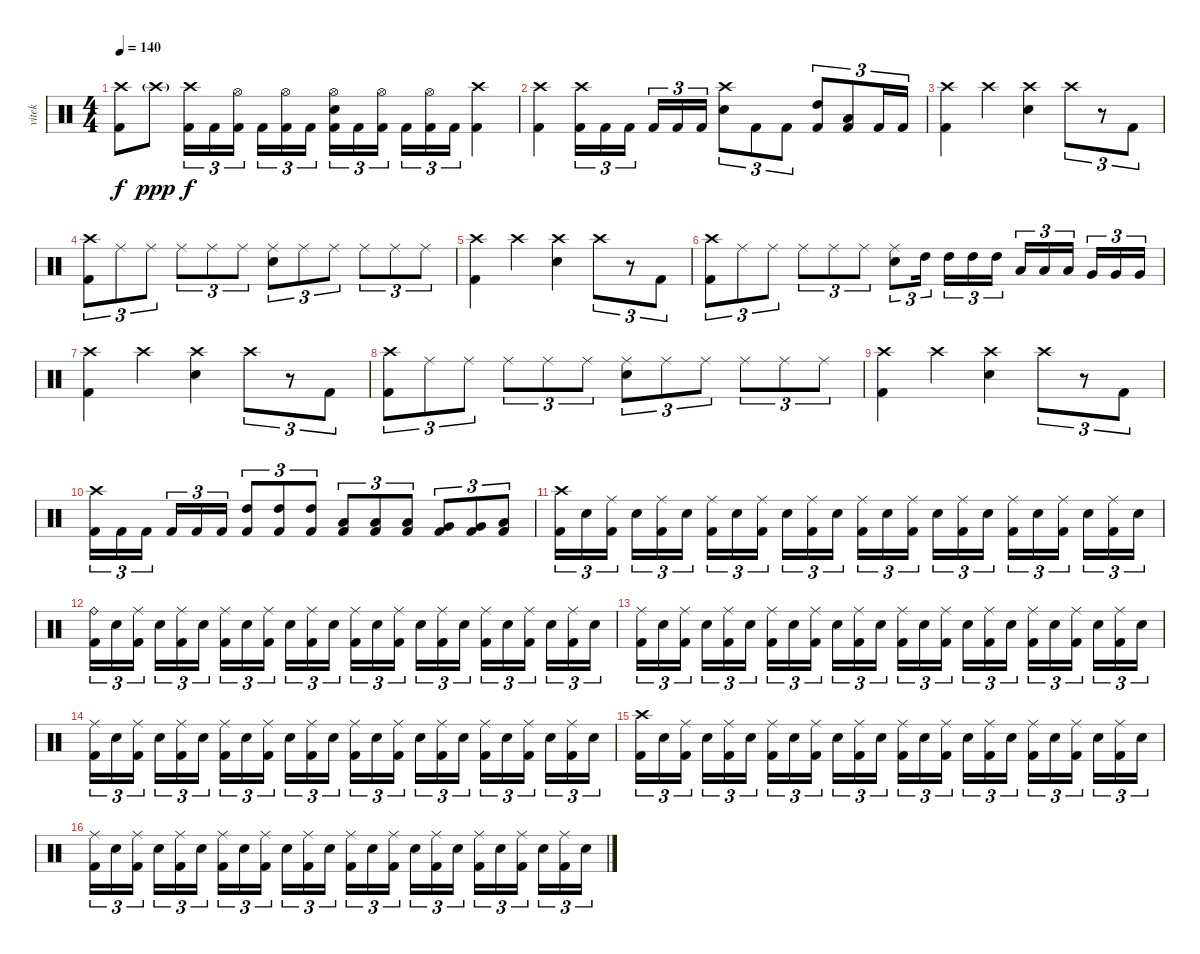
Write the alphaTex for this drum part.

\track ("vitek" "vitek") {instrument percussion}
\staff {score}
\articulation defaults
\ts (4 4)
\tempo 140
\clef neutral
\ks c
("Crash high (hit)"{pm} "Kick (hit) 2").8{dy f} "Crash high (hit)"{g}.8{dy ppp} ("Crash high (hit)" "Kick (hit) 2").16{tu (3 2) dy f} "Kick (hit) 2".16{tu (3 2)} ("Hi-Hat (open)" "Kick (hit) 2").16{tu (3 2)} "Kick (hit) 2".16{tu (3 2)} ("Hi-Hat (open)" "Kick (hit) 2").16{tu (3 2)} "Kick (hit) 2".16{tu (3 2)} ("Hi-Hat (open)" "Electric Snare (hit)" "Kick (hit) 2").16{tu (3 2)} "Kick (hit) 2".16{tu (3 2)} ("Hi-Hat (open)" "Kick (hit) 2").16{tu (3 2)} "Kick (hit) 2".16{tu (3 2)} ("Hi-Hat (open)" "Kick (hit) 2").16{tu (3 2)} "Kick (hit) 2".16{tu (3 2)} ("Crash high (hit)" "Kick (hit) 2").4 |
("Crash high (hit)" "Kick (hit) 2").4 ("Crash high (hit)" "Kick (hit) 2").16{tu (3 2)} "Kick (hit) 2".16{tu (3 2)} "Kick (hit) 2".16{tu (3 2)} "Kick (hit) 2".16{tu (3 2)} "Kick (hit) 2".16{tu (3 2)} "Kick (hit) 2".16{tu (3 2)} ("Crash high (hit)" "Electric Snare (hit)").8{tu (3 2)} "Kick (hit) 2".8{tu (3 2)} "Kick (hit) 2".8{tu (3 2)} ("High Tom (hit)" "Kick (hit) 2").8{tu (3 2)} ("Low Tom (hit)" "Kick (hit) 2").8{tu (3 2)} "Kick (hit) 2".16{tu (3 2)} "Kick (hit) 2".16{tu (3 2)} |
("Crash high (hit)" "Kick (hit) 2").4 "Crash high (hit)".4 ("Crash high (hit)" "Electric Snare (hit)").4 "Crash high (hit)".8{tu (3 2)} r.8{tu (3 2)} "Kick (hit) 2".8{tu (3 2)} |
("Crash high (hit)" "Kick (hit) 2").8{tu (3 2)} "Ride (middle)".8{tu (3 2)} "Ride (middle)".8{tu (3 2)} "Ride (middle)".8{tu (3 2)} "Ride (middle)".8{tu (3 2)} "Ride (middle)".8{tu (3 2)} ("Ride (middle)" "Electric Snare (hit)").8{tu (3 2)} "Ride (middle)".8{tu (3 2)} "Ride (middle)".8{tu (3 2)} "Ride (middle)".8{tu (3 2)} "Ride (middle)".8{tu (3 2)} "Ride (middle)".8{tu (3 2)} |
("Crash high (hit)" "Kick (hit) 2").4 "Crash high (hit)".4 ("Crash high (hit)" "Electric Snare (hit)").4 "Crash high (hit)".8{tu (3 2)} r.8{tu (3 2)} "Kick (hit) 2".8{tu (3 2)} |
("Crash high (hit)" "Kick (hit) 2").8{tu (3 2)} "Ride (middle)".8{tu (3 2)} "Ride (middle)".8{tu (3 2)} "Ride (middle)".8{tu (3 2)} "Ride (middle)".8{tu (3 2)} "Ride (middle)".8{tu (3 2)} ("Ride (middle)" "Electric Snare (hit)").8{tu (3 2)} "High Tom (hit)".16{tu (3 2)} "High Tom (hit)".16{tu (3 2)} "High Tom (hit)".16{tu (3 2)} "High Tom (hit)".16{tu (3 2)} "Low Tom (hit)".16{tu (3 2)} "Low Tom (hit)".16{tu (3 2)} "Low Tom (hit)".16{tu (3 2)} "Very Low Tom (hit)".16{tu (3 2)} "Very Low Tom (hit)".16{tu (3 2)} "Very Low Tom (hit)".16{tu (3 2)} |
("Crash high (hit)" "Kick (hit) 2").4 "Crash high (hit)".4 ("Crash high (hit)" "Electric Snare (hit)").4 "Crash high (hit)".8{tu (3 2)} r.8{tu (3 2)} "Kick (hit) 2".8{tu (3 2)} |
("Crash high (hit)" "Kick (hit) 2").8{tu (3 2)} "Ride (middle)".8{tu (3 2)} "Ride (middle)".8{tu (3 2)} "Ride (middle)".8{tu (3 2)} "Ride (middle)".8{tu (3 2)} "Ride (middle)".8{tu (3 2)} ("Ride (middle)" "Electric Snare (hit)").8{tu (3 2)} "Ride (middle)".8{tu (3 2)} "Ride (middle)".8{tu (3 2)} "Ride (middle)".8{tu (3 2)} "Ride (middle)".8{tu (3 2)} "Ride (middle)".8{tu (3 2)} |
("Crash high (hit)" "Kick (hit) 2").4 "Crash high (hit)".4 ("Crash high (hit)" "Electric Snare (hit)").4 "Crash high (hit)".8{tu (3 2)} r.8{tu (3 2)} "Kick (hit) 2".8{tu (3 2)} |
("Crash high (hit)" "Kick (hit) 2").16{tu (3 2)} "Kick (hit) 2".16{tu (3 2)} "Kick (hit) 2".16{tu (3 2)} "Kick (hit) 2".16{tu (3 2)} "Kick (hit) 2".16{tu (3 2)} "Kick (hit) 2".16{tu (3 2)} ("High Tom (hit)" "Kick (hit) 2").8{tu (3 2)} ("High Tom (hit)" "Kick (hit) 2").8{tu (3 2)} ("High Tom (hit)" "Kick (hit) 2").8{tu (3 2)} ("Low Tom (hit)" "Kick (hit) 2").8{tu (3 2)} ("Low Tom (hit)" "Kick (hit) 2").8{tu (3 2)} ("Low Tom (hit)" "Kick (hit) 2").8{tu (3 2)} ("Very Low Tom (hit)" "Kick (hit) 2").8{tu (3 2)} ("Very Low Tom (hit)" "Kick (hit) 2").8{tu (3 2)} ("Low Floor Tom (hit)" "Kick (hit) 2").8{tu (3 2)} |
\section ("" "")
("Crash high (hit)" "Kick (hit) 2").16{tu (3 2)} "Electric Snare (hit)".16{tu (3 2)} ("Ride (middle)" "Kick (hit) 2").16{tu (3 2)} "Electric Snare (hit)".16{tu (3 2)} ("Ride (middle)" "Kick (hit) 2").16{tu (3 2)} "Electric Snare (hit)".16{tu (3 2)} ("Ride (middle)" "Kick (hit) 2").16{tu (3 2)} "Electric Snare (hit)".16{tu (3 2)} ("Ride (middle)" "Kick (hit) 2").16{tu (3 2)} "Electric Snare (hit)".16{tu (3 2)} ("Ride (middle)" "Kick (hit) 2").16{tu (3 2)} "Electric Snare (hit)".16{tu (3 2)} ("Ride (middle)" "Kick (hit) 2").16{tu (3 2)} "Electric Snare (hit)".16{tu (3 2)} ("Ride (middle)" "Kick (hit) 2").16{tu (3 2)} "Electric Snare (hit)".16{tu (3 2)} ("Ride (middle)" "Kick (hit) 2").16{tu (3 2)} "Electric Snare (hit)".16{tu (3 2)} ("Ride (middle)" "Kick (hit) 2").16{tu (3 2)} "Electric Snare (hit)".16{tu (3 2)} ("Ride (middle)" "Kick (hit) 2").16{tu (3 2)} "Electric Snare (hit)".16{tu (3 2)} ("Ride (middle)" "Kick (hit) 2").16{tu (3 2)} "Electric Snare (hit)".16{tu (3 2)} |
("Ride (bell)" "Kick (hit) 2").16{tu (3 2)} "Electric Snare (hit)".16{tu (3 2)} ("Ride (middle)" "Kick (hit) 2").16{tu (3 2)} "Electric Snare (hit)".16{tu (3 2)} ("Ride (middle)" "Kick (hit) 2").16{tu (3 2)} "Electric Snare (hit)".16{tu (3 2)} ("Ride (middle)" "Kick (hit) 2").16{tu (3 2)} "Electric Snare (hit)".16{tu (3 2)} ("Ride (middle)" "Kick (hit) 2").16{tu (3 2)} "Electric Snare (hit)".16{tu (3 2)} ("Ride (middle)" "Kick (hit) 2").16{tu (3 2)} "Electric Snare (hit)".16{tu (3 2)} ("Ride (middle)" "Kick (hit) 2").16{tu (3 2)} "Electric Snare (hit)".16{tu (3 2)} ("Ride (middle)" "Kick (hit) 2").16{tu (3 2)} "Electric Snare (hit)".16{tu (3 2)} ("Ride (middle)" "Kick (hit) 2").16{tu (3 2)} "Electric Snare (hit)".16{tu (3 2)} ("Ride (middle)" "Kick (hit) 2").16{tu (3 2)} "Electric Snare (hit)".16{tu (3 2)} ("Ride (middle)" "Kick (hit) 2").16{tu (3 2)} "Electric Snare (hit)".16{tu (3 2)} ("Ride (middle)" "Kick (hit) 2").16{tu (3 2)} "Electric Snare (hit)".16{tu (3 2)} |
("Ride (middle)" "Kick (hit) 2").16{tu (3 2)} "Electric Snare (hit)".16{tu (3 2)} ("Ride (middle)" "Kick (hit) 2").16{tu (3 2)} "Electric Snare (hit)".16{tu (3 2)} ("Ride (middle)" "Kick (hit) 2").16{tu (3 2)} "Electric Snare (hit)".16{tu (3 2)} ("Ride (middle)" "Kick (hit) 2").16{tu (3 2)} "Electric Snare (hit)".16{tu (3 2)} ("Ride (middle)" "Kick (hit) 2").16{tu (3 2)} "Electric Snare (hit)".16{tu (3 2)} ("Ride (middle)" "Kick (hit) 2").16{tu (3 2)} "Electric Snare (hit)".16{tu (3 2)} ("Ride (middle)" "Kick (hit) 2").16{tu (3 2)} "Electric Snare (hit)".16{tu (3 2)} ("Ride (middle)" "Kick (hit) 2").16{tu (3 2)} "Electric Snare (hit)".16{tu (3 2)} ("Ride (middle)" "Kick (hit) 2").16{tu (3 2)} "Electric Snare (hit)".16{tu (3 2)} ("Ride (middle)" "Kick (hit) 2").16{tu (3 2)} "Electric Snare (hit)".16{tu (3 2)} ("Ride (middle)" "Kick (hit) 2").16{tu (3 2)} "Electric Snare (hit)".16{tu (3 2)} ("Ride (middle)" "Kick (hit) 2").16{tu (3 2)} "Electric Snare (hit)".16{tu (3 2)} |
("Ride (middle)" "Kick (hit) 2").16{tu (3 2)} "Electric Snare (hit)".16{tu (3 2)} ("Ride (middle)" "Kick (hit) 2").16{tu (3 2)} "Electric Snare (hit)".16{tu (3 2)} ("Ride (middle)" "Kick (hit) 2").16{tu (3 2)} "Electric Snare (hit)".16{tu (3 2)} ("Ride (middle)" "Kick (hit) 2").16{tu (3 2)} "Electric Snare (hit)".16{tu (3 2)} ("Ride (middle)" "Kick (hit) 2").16{tu (3 2)} "Electric Snare (hit)".16{tu (3 2)} ("Ride (middle)" "Kick (hit) 2").16{tu (3 2)} "Electric Snare (hit)".16{tu (3 2)} ("Ride (middle)" "Kick (hit) 2").16{tu (3 2)} "Electric Snare (hit)".16{tu (3 2)} ("Ride (middle)" "Kick (hit) 2").16{tu (3 2)} "Electric Snare (hit)".16{tu (3 2)} ("Ride (middle)" "Kick (hit) 2").16{tu (3 2)} "Electric Snare (hit)".16{tu (3 2)} ("Ride (middle)" "Kick (hit) 2").16{tu (3 2)} "Electric Snare (hit)".16{tu (3 2)} ("Ride (middle)" "Kick (hit) 2").16{tu (3 2)} "Electric Snare (hit)".16{tu (3 2)} ("Ride (middle)" "Kick (hit) 2").16{tu (3 2)} "Electric Snare (hit)".16{tu (3 2)} |
("Crash high (hit)" "Kick (hit) 2").16{tu (3 2)} "Electric Snare (hit)".16{tu (3 2)} ("Ride (middle)" "Kick (hit) 2").16{tu (3 2)} "Electric Snare (hit)".16{tu (3 2)} ("Ride (middle)" "Kick (hit) 2").16{tu (3 2)} "Electric Snare (hit)".16{tu (3 2)} ("Ride (middle)" "Kick (hit) 2").16{tu (3 2)} "Electric Snare (hit)".16{tu (3 2)} ("Ride (middle)" "Kick (hit) 2").16{tu (3 2)} "Electric Snare (hit)".16{tu (3 2)} ("Ride (middle)" "Kick (hit) 2").16{tu (3 2)} "Electric Snare (hit)".16{tu (3 2)} ("Ride (middle)" "Kick (hit) 2").16{tu (3 2)} "Electric Snare (hit)".16{tu (3 2)} ("Ride (middle)" "Kick (hit) 2").16{tu (3 2)} "Electric Snare (hit)".16{tu (3 2)} ("Ride (middle)" "Kick (hit) 2").16{tu (3 2)} "Electric Snare (hit)".16{tu (3 2)} ("Ride (middle)" "Kick (hit) 2").16{tu (3 2)} "Electric Snare (hit)".16{tu (3 2)} ("Ride (middle)" "Kick (hit) 2").16{tu (3 2)} "Electric Snare (hit)".16{tu (3 2)} ("Ride (middle)" "Kick (hit) 2").16{tu (3 2)} "Electric Snare (hit)".16{tu (3 2)} |
("Ride (middle)" "Kick (hit) 2").16{tu (3 2)} "Electric Snare (hit)".16{tu (3 2)} ("Ride (middle)" "Kick (hit) 2").16{tu (3 2)} "Electric Snare (hit)".16{tu (3 2)} ("Ride (middle)" "Kick (hit) 2").16{tu (3 2)} "Electric Snare (hit)".16{tu (3 2)} ("Ride (middle)" "Kick (hit) 2").16{tu (3 2)} "Electric Snare (hit)".16{tu (3 2)} ("Ride (middle)" "Kick (hit) 2").16{tu (3 2)} "Electric Snare (hit)".16{tu (3 2)} ("Ride (middle)" "Kick (hit) 2").16{tu (3 2)} "Electric Snare (hit)".16{tu (3 2)} ("Ride (middle)" "Kick (hit) 2").16{tu (3 2)} "Electric Snare (hit)".16{tu (3 2)} ("Ride (middle)" "Kick (hit) 2").16{tu (3 2)} "Electric Snare (hit)".16{tu (3 2)} ("Ride (middle)" "Kick (hit) 2").16{tu (3 2)} "Electric Snare (hit)".16{tu (3 2)} ("Ride (middle)" "Kick (hit) 2").16{tu (3 2)} "Electric Snare (hit)".16{tu (3 2)} ("Ride (middle)" "Kick (hit) 2").16{tu (3 2)} "Electric Snare (hit)".16{tu (3 2)} ("Ride (middle)" "Kick (hit) 2").16{tu (3 2)} "Electric Snare (hit)".16{tu (3 2)}
